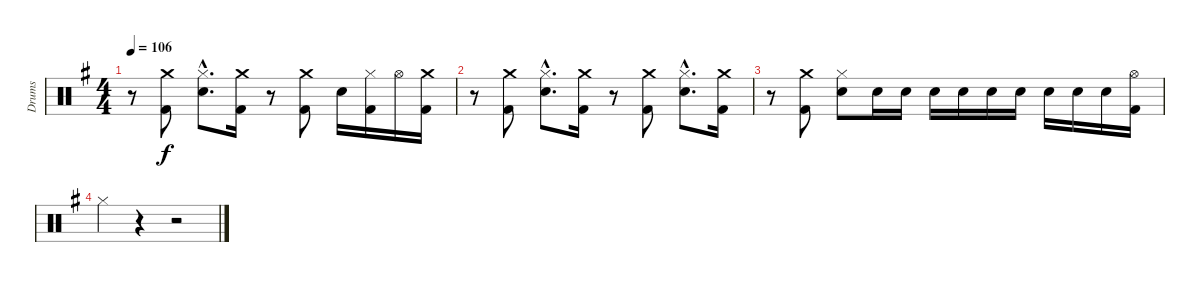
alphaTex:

\track ("Drums" "Drums") {instrument percussion}
\staff {score}
\articulation defaults
\ts (4 4)
\tempo 106
\clef neutral
\ks g
r.8{dy f} ("Crash medium (hit)" "Kick (hit) 2").8 ("Hi-Hat (closed)"{hac} "Electric Snare (hit)"{hac}).8{d} ("Crash medium (hit)" "Kick (hit) 2").16 r.8 ("Crash medium (hit)" "Kick (hit) 2").8 "Electric Snare (hit)".16 ("Hi-Hat (closed)" "Kick (hit) 2").16 "Hi-Hat (open)".16 ("Crash medium (hit)" "Kick (hit) 2").16 |
r.8 ("Crash medium (hit)" "Kick (hit) 2").8 ("Hi-Hat (closed)"{hac} "Electric Snare (hit)"{hac}).8{d} ("Crash medium (hit)" "Kick (hit) 2").16 r.8 ("Crash medium (hit)" "Kick (hit) 2").8 ("Hi-Hat (closed)"{hac} "Electric Snare (hit)"{hac}).8{d} ("Crash medium (hit)" "Kick (hit) 2").16 |
r.8 ("Crash medium (hit)" "Kick (hit) 2").8 ("Hi-Hat (closed)" "Electric Snare (hit)").8 "Electric Snare (hit)".16 "Electric Snare (hit)".16 "Electric Snare (hit)".16 "Electric Snare (hit)".16 "Electric Snare (hit)".16 "Electric Snare (hit)".16 "Electric Snare (hit)".16 "Electric Snare (hit)".16 "Electric Snare (hit)".16 ("Hi-Hat (open)" "Kick (hit) 2").16 |
"Hi-Hat (closed)".4 r.4 r.2
